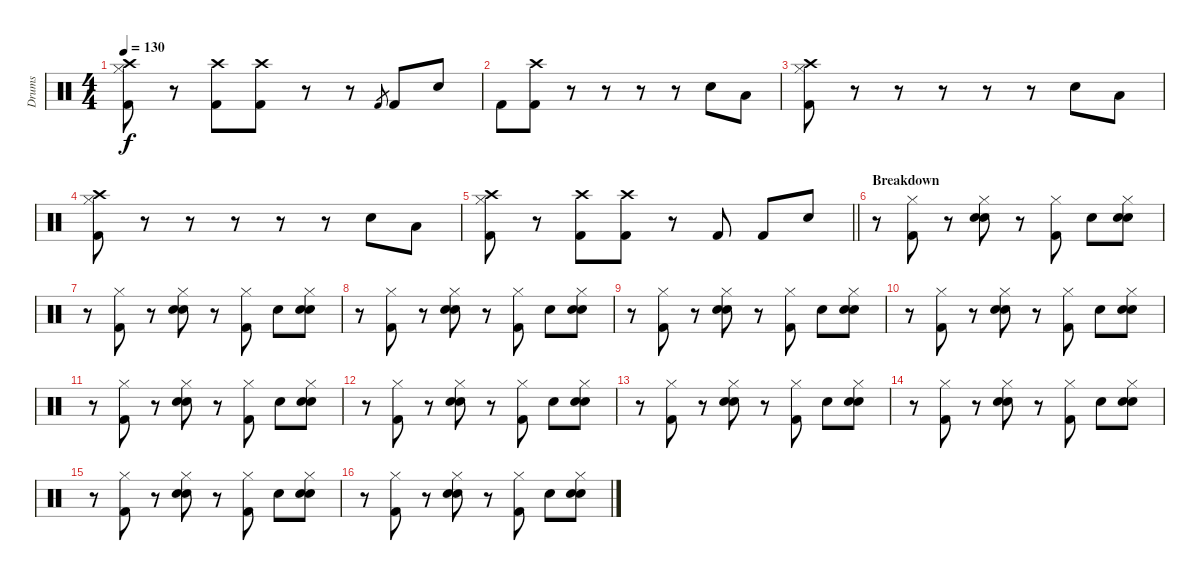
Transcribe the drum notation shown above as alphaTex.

\track ("Drums" "Drums") {instrument percussion}
\staff {score}
\articulation defaults
\ts (4 4)
\tempo 130
\clef neutral
\ks c
("Hi-Hat (closed)" "Crash high (hit)" "Kick (hit) 2").8{dy f} r.8 ("Crash high (hit)" "Kick (hit) 2").8 ("Crash high (hit)" "Kick (hit) 2").8 r.8 r.8 "Kick (hit) 2".8{gr} "Kick (hit) 2".8 "Snare (hit) 2".8 |
"Kick (hit) 2".8 ("Crash high (hit)" "Kick (hit) 2").8 r.8 r.8 r.8 r.8 "Snare (hit) 2".8 "Low Tom (hit)".8 |
("Hi-Hat (closed)" "Crash high (hit)" "Kick (hit) 2").8 r.8 r.8 r.8 r.8 r.8 "Snare (hit) 2".8 "Low Tom (hit)".8 |
("Hi-Hat (closed)" "Crash high (hit)" "Kick (hit) 2").8 r.8 r.8 r.8 r.8 r.8 "Snare (hit) 2".8 "Low Tom (hit)".8 |
\barLineRight lightlight
("Hi-Hat (closed)" "Crash high (hit)" "Kick (hit) 2").8 r.8 ("Crash high (hit)" "Kick (hit) 2").8 ("Crash high (hit)" "Kick (hit) 2").8 r.8 "Kick (hit) 2".8 "Kick (hit) 2".8 "Snare (hit) 2".8 |
\section ("" "Breakdown")
r.8 ("Hi-Hat (closed)" "Kick (hit) 2").8 r.8 ("Hi-Hat (closed)" "Snare (hit) 2" "Hand Clap (hit)").8 r.8 ("Hi-Hat (closed)" "Kick (hit) 2").8 "Hand Clap (hit)".8 ("Hi-Hat (closed)" "Snare (hit) 2" "Hand Clap (hit)").8 |
r.8 ("Hi-Hat (closed)" "Kick (hit) 2").8 r.8 ("Hi-Hat (closed)" "Snare (hit) 2" "Hand Clap (hit)").8 r.8 ("Hi-Hat (closed)" "Kick (hit) 2").8 "Hand Clap (hit)".8 ("Hi-Hat (closed)" "Snare (hit) 2" "Hand Clap (hit)").8 |
r.8 ("Hi-Hat (closed)" "Kick (hit) 2").8 r.8 ("Hi-Hat (closed)" "Snare (hit) 2" "Hand Clap (hit)").8 r.8 ("Hi-Hat (closed)" "Kick (hit) 2").8 "Hand Clap (hit)".8 ("Hi-Hat (closed)" "Snare (hit) 2" "Hand Clap (hit)").8 |
r.8 ("Hi-Hat (closed)" "Kick (hit) 2").8 r.8 ("Hi-Hat (closed)" "Snare (hit) 2" "Hand Clap (hit)").8 r.8 ("Hi-Hat (closed)" "Kick (hit) 2").8 "Hand Clap (hit)".8 ("Hi-Hat (closed)" "Snare (hit) 2" "Hand Clap (hit)").8 |
r.8 ("Hi-Hat (closed)" "Kick (hit) 2").8 r.8 ("Hi-Hat (closed)" "Snare (hit) 2" "Hand Clap (hit)").8 r.8 ("Hi-Hat (closed)" "Kick (hit) 2").8 "Hand Clap (hit)".8 ("Hi-Hat (closed)" "Snare (hit) 2" "Hand Clap (hit)").8 |
r.8 ("Hi-Hat (closed)" "Kick (hit) 2").8 r.8 ("Hi-Hat (closed)" "Snare (hit) 2" "Hand Clap (hit)").8 r.8 ("Hi-Hat (closed)" "Kick (hit) 2").8 "Hand Clap (hit)".8 ("Hi-Hat (closed)" "Snare (hit) 2" "Hand Clap (hit)").8 |
r.8 ("Hi-Hat (closed)" "Kick (hit) 2").8 r.8 ("Hi-Hat (closed)" "Snare (hit) 2" "Hand Clap (hit)").8 r.8 ("Hi-Hat (closed)" "Kick (hit) 2").8 "Hand Clap (hit)".8 ("Hi-Hat (closed)" "Snare (hit) 2" "Hand Clap (hit)").8 |
r.8 ("Hi-Hat (closed)" "Kick (hit) 2").8 r.8 ("Hi-Hat (closed)" "Snare (hit) 2" "Hand Clap (hit)").8 r.8 ("Hi-Hat (closed)" "Kick (hit) 2").8 "Hand Clap (hit)".8 ("Hi-Hat (closed)" "Snare (hit) 2" "Hand Clap (hit)").8 |
r.8 ("Hi-Hat (closed)" "Kick (hit) 2").8 r.8 ("Hi-Hat (closed)" "Snare (hit) 2" "Hand Clap (hit)").8 r.8 ("Hi-Hat (closed)" "Kick (hit) 2").8 "Hand Clap (hit)".8 ("Hi-Hat (closed)" "Snare (hit) 2" "Hand Clap (hit)").8 |
r.8 ("Hi-Hat (closed)" "Kick (hit) 2").8 r.8 ("Hi-Hat (closed)" "Snare (hit) 2" "Hand Clap (hit)").8 r.8 ("Hi-Hat (closed)" "Kick (hit) 2").8 "Hand Clap (hit)".8 ("Hi-Hat (closed)" "Snare (hit) 2" "Hand Clap (hit)").8 |
r.8 ("Hi-Hat (closed)" "Kick (hit) 2").8 r.8 ("Hi-Hat (closed)" "Snare (hit) 2" "Hand Clap (hit)").8 r.8 ("Hi-Hat (closed)" "Kick (hit) 2").8 "Hand Clap (hit)".8 ("Hi-Hat (closed)" "Snare (hit) 2" "Hand Clap (hit)").8
